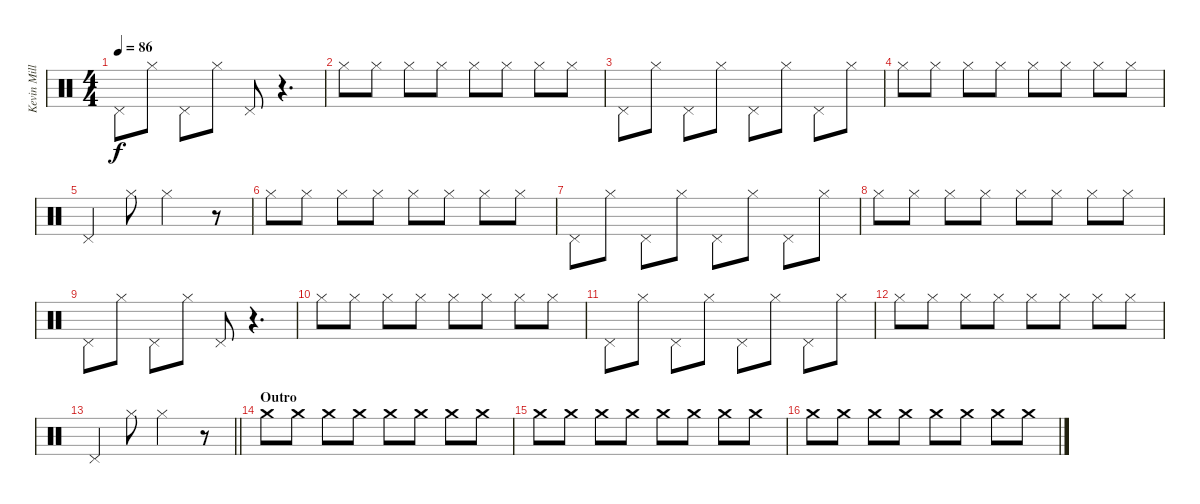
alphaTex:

\track ("Kevin Miller (Drums)" "Kevin Mill") {instrument percussion}
\staff {score}
\articulation defaults
\ts (4 4)
\tempo 86
\clef neutral
\ks c "Pedal Hi-Hat (hit)".8{dy f} "Hi-Hat (closed)".8 "Pedal Hi-Hat (hit)".8 "Hi-Hat (closed)".8 "Pedal Hi-Hat (hit)".8
r.4{d} |
"Hi-Hat (closed)".8 "Hi-Hat (closed)".8 "Hi-Hat (closed)".8 "Hi-Hat (closed)".8 "Hi-Hat (closed)".8 "Hi-Hat (closed)".8 "Hi-Hat (closed)".8 "Hi-Hat (closed)".8 |
"Pedal Hi-Hat (hit)".8 "Hi-Hat (closed)".8 "Pedal Hi-Hat (hit)".8 "Hi-Hat (closed)".8 "Pedal Hi-Hat (hit)".8 "Hi-Hat (closed)".8 "Pedal Hi-Hat (hit)".8 "Hi-Hat (closed)".8 |
"Hi-Hat (closed)".8 "Hi-Hat (closed)".8 "Hi-Hat (closed)".8 "Hi-Hat (closed)".8 "Hi-Hat (closed)".8 "Hi-Hat (closed)".8 "Hi-Hat (closed)".8 "Hi-Hat (closed)".8 |
"Pedal Hi-Hat (hit)".4 "Hi-Hat (closed)".8 "Hi-Hat (closed)".2 r.8 |
"Hi-Hat (closed)".8 "Hi-Hat (closed)".8 "Hi-Hat (closed)".8 "Hi-Hat (closed)".8 "Hi-Hat (closed)".8 "Hi-Hat (closed)".8 "Hi-Hat (closed)".8 "Hi-Hat (closed)".8 |
"Pedal Hi-Hat (hit)".8 "Hi-Hat (closed)".8 "Pedal Hi-Hat (hit)".8 "Hi-Hat (closed)".8 "Pedal Hi-Hat (hit)".8 "Hi-Hat (closed)".8 "Pedal Hi-Hat (hit)".8 "Hi-Hat (closed)".8 |
"Hi-Hat (closed)".8 "Hi-Hat (closed)".8 "Hi-Hat (closed)".8 "Hi-Hat (closed)".8 "Hi-Hat (closed)".8 "Hi-Hat (closed)".8 "Hi-Hat (closed)".8 "Hi-Hat (closed)".8 |
"Pedal Hi-Hat (hit)".8 "Hi-Hat (closed)".8 "Pedal Hi-Hat (hit)".8 "Hi-Hat (closed)".8 "Pedal Hi-Hat (hit)".8 r.4{d} |
"Hi-Hat (closed)".8 "Hi-Hat (closed)".8 "Hi-Hat (closed)".8 "Hi-Hat (closed)".8 "Hi-Hat (closed)".8 "Hi-Hat (closed)".8 "Hi-Hat (closed)".8 "Hi-Hat (closed)".8 |
"Pedal Hi-Hat (hit)".8 "Hi-Hat (closed)".8 "Pedal Hi-Hat (hit)".8 "Hi-Hat (closed)".8 "Pedal Hi-Hat (hit)".8 "Hi-Hat (closed)".8 "Pedal Hi-Hat (hit)".8 "Hi-Hat (closed)".8 |
"Hi-Hat (closed)".8 "Hi-Hat (closed)".8 "Hi-Hat (closed)".8 "Hi-Hat (closed)".8 "Hi-Hat (closed)".8 "Hi-Hat (closed)".8 "Hi-Hat (closed)".8 "Hi-Hat (closed)".8 |
\barLineRight lightlight "Pedal Hi-Hat (hit)".4 "Hi-Hat (closed)".8 "Hi-Hat (closed)".2
r.8 |
\section ("" "Outro")
"Crash medium (hit)".8 "Crash medium (hit)".8 "Crash medium (hit)".8 "Crash medium (hit)".8 "Crash medium (hit)".8 "Crash medium (hit)".8 "Crash medium (hit)".8 "Crash medium (hit)".8 |
"Crash medium (hit)".8 "Crash medium (hit)".8 "Crash medium (hit)".8 "Crash medium (hit)".8 "Crash medium (hit)".8 "Crash medium (hit)".8 "Crash medium (hit)".8 "Crash medium (hit)".8 |
"Crash medium (hit)".8 "Crash medium (hit)".8 "Crash medium (hit)".8 "Crash medium (hit)".8 "Crash medium (hit)".8 "Crash medium (hit)".8 "Crash medium (hit)".8 "Crash medium (hit)".8
